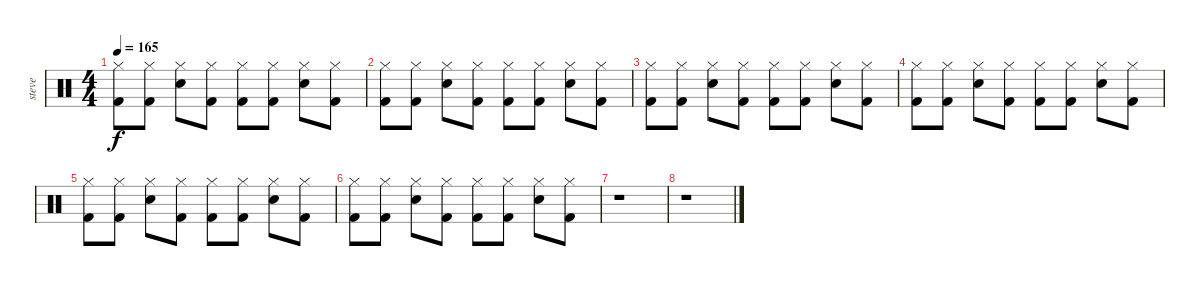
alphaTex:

\track ("steve" "steve") {instrument percussion}
\staff {score}
\articulation defaults
\ts (4 4)
\tempo 165
\clef neutral
\ks c
("Hi-Hat (closed)" "Kick (hit) 2").8{dy f} ("Hi-Hat (closed)" "Kick (hit) 2").8 ("Hi-Hat (closed)" "Electric Snare (hit)").8 ("Hi-Hat (closed)" "Kick (hit) 2").8 ("Hi-Hat (closed)" "Kick (hit) 2").8 ("Hi-Hat (closed)" "Kick (hit) 2").8 ("Hi-Hat (closed)" "Electric Snare (hit)").8 ("Hi-Hat (closed)" "Kick (hit) 2").8 |
("Hi-Hat (closed)" "Kick (hit) 2").8 ("Hi-Hat (closed)" "Kick (hit) 2").8 ("Hi-Hat (closed)" "Electric Snare (hit)").8 ("Hi-Hat (closed)" "Kick (hit) 2").8 ("Hi-Hat (closed)" "Kick (hit) 2").8 ("Hi-Hat (closed)" "Kick (hit) 2").8 ("Hi-Hat (closed)" "Electric Snare (hit)").8 ("Hi-Hat (closed)" "Kick (hit) 2").8 |
("Hi-Hat (closed)" "Kick (hit) 2").8 ("Hi-Hat (closed)" "Kick (hit) 2").8 ("Hi-Hat (closed)" "Electric Snare (hit)").8 ("Hi-Hat (closed)" "Kick (hit) 2").8 ("Hi-Hat (closed)" "Kick (hit) 2").8 ("Hi-Hat (closed)" "Kick (hit) 2").8 ("Hi-Hat (closed)" "Electric Snare (hit)").8 ("Hi-Hat (closed)" "Kick (hit) 2").8 |
("Hi-Hat (closed)" "Kick (hit) 2").8 ("Hi-Hat (closed)" "Kick (hit) 2").8 ("Hi-Hat (closed)" "Electric Snare (hit)").8 ("Hi-Hat (closed)" "Kick (hit) 2").8 ("Hi-Hat (closed)" "Kick (hit) 2").8 ("Hi-Hat (closed)" "Kick (hit) 2").8 ("Hi-Hat (closed)" "Electric Snare (hit)").8 ("Hi-Hat (closed)" "Kick (hit) 2").8 |
("Hi-Hat (closed)" "Kick (hit) 2").8 ("Hi-Hat (closed)" "Kick (hit) 2").8 ("Hi-Hat (closed)" "Electric Snare (hit)").8 ("Hi-Hat (closed)" "Kick (hit) 2").8 ("Hi-Hat (closed)" "Kick (hit) 2").8 ("Hi-Hat (closed)" "Kick (hit) 2").8 ("Hi-Hat (closed)" "Electric Snare (hit)").8 ("Hi-Hat (closed)" "Kick (hit) 2").8 |
("Hi-Hat (closed)" "Kick (hit) 2").8 ("Hi-Hat (closed)" "Kick (hit) 2").8 ("Hi-Hat (closed)" "Electric Snare (hit)").8 ("Hi-Hat (closed)" "Kick (hit) 2").8 ("Hi-Hat (closed)" "Kick (hit) 2").8 ("Hi-Hat (closed)" "Kick (hit) 2").8 ("Hi-Hat (closed)" "Electric Snare (hit)").8 ("Hi-Hat (closed)" "Kick (hit) 2").8 |
r.1 |
r.1
